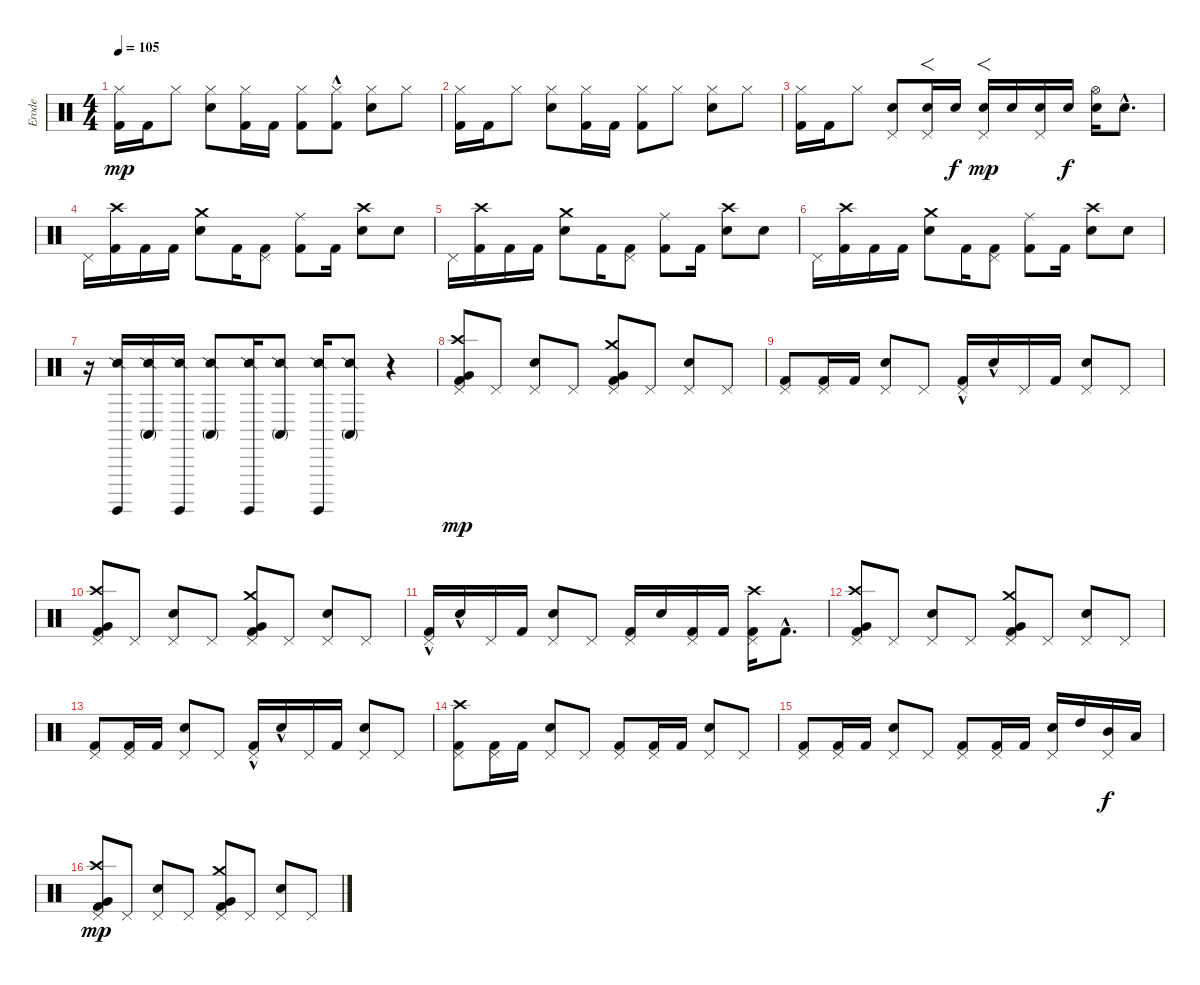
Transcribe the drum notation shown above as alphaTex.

\track ("Erode" "Erode") {instrument percussion}
\staff {score}
\articulation defaults
\ts (4 4)
\tempo 105
\clef neutral
\ks c
("Kick (hit) 2" "Hi-Hat (closed)").16{dy mp} "Kick (hit) 2".16 "Hi-Hat (closed)".8 ("Electric Snare (hit)" "Hi-Hat (closed)").8 ("Kick (hit) 2" "Hi-Hat (closed)").16 "Kick (hit) 2".16 ("Kick (hit) 2" "Hi-Hat (closed)").8 ("Kick (hit) 2"{hac} "Hi-Hat (closed)").8 ("Electric Snare (hit)" "Hi-Hat (closed)").8 "Hi-Hat (closed)".8 |
("Kick (hit) 2" "Hi-Hat (closed)").16 "Kick (hit) 2".16 "Hi-Hat (closed)".8 ("Electric Snare (hit)" "Hi-Hat (closed)").8 ("Kick (hit) 2" "Hi-Hat (closed)").16 "Kick (hit) 2".16 ("Kick (hit) 2" "Hi-Hat (closed)").8 "Hi-Hat (closed)".8 ("Electric Snare (hit)" "Hi-Hat (closed)").8 "Hi-Hat (closed)".8 |
("Kick (hit) 2" "Hi-Hat (closed)").16 "Kick (hit) 2".16 "Hi-Hat (closed)".8 ("Electric Snare (hit)" "Pedal Hi-Hat (hit)").8 ("Electric Snare (hit)" "Pedal Hi-Hat (hit)").16{f} "Electric Snare (hit)".16{dy f} ("Electric Snare (hit)" "Pedal Hi-Hat (hit)").16{f dy mp} "Electric Snare (hit)".16 ("Electric Snare (hit)" "Pedal Hi-Hat (hit)").16 "Electric Snare (hit)".16{dy f} ("Electric Snare (hit)" "Hi-Hat (open)").16 "Electric Snare (hit)"{hac}.8{d} |
"Pedal Hi-Hat (hit)".16 ("Kick (hit) 2" "Crash high (hit)").16 "Kick (hit) 2".16 "Kick (hit) 2".16 ("Electric Snare (hit)" "Crash medium (hit)").8 "Kick (hit) 2".16 ("Kick (hit) 2" "Pedal Hi-Hat (hit)").8 ("Kick (hit) 2" "Ride (middle)").8 "Kick (hit) 2".16 ("Electric Snare (hit)" "Crash high (hit)").8 "Electric Snare (hit)".8 |
"Pedal Hi-Hat (hit)".16 ("Kick (hit) 2" "Crash high (hit)").16 "Kick (hit) 2".16 "Kick (hit) 2".16 ("Electric Snare (hit)" "Crash medium (hit)").8 "Kick (hit) 2".16 ("Kick (hit) 2" "Pedal Hi-Hat (hit)").8 ("Kick (hit) 2" "Ride (middle)").8 "Kick (hit) 2".16 ("Electric Snare (hit)" "Crash high (hit)").8 "Electric Snare (hit)".8 |
"Pedal Hi-Hat (hit)".16 ("Kick (hit) 2" "Crash high (hit)").16 "Kick (hit) 2".16 "Kick (hit) 2".16 ("Electric Snare (hit)" "Crash medium (hit)").8 "Kick (hit) 2".16 ("Kick (hit) 2" "Pedal Hi-Hat (hit)").8 ("Kick (hit) 2" "Ride (middle)").8 "Kick (hit) 2".16 ("Electric Snare (hit)" "Crash high (hit)").8 "Electric Snare (hit)".8 |
r.16 ("Snare (side stick) 2" "Surdo (hit)").16{volume 9} ("Snare (side stick) 2" "Conga high (mute)").16 ("Snare (side stick) 2" "Surdo (hit)").16 ("Snare (side stick) 2" "Conga high (mute)").8 ("Snare (side stick) 2" "Surdo (hit)").16 ("Snare (side stick) 2" "Conga high (mute)").8 ("Snare (side stick) 2" "Surdo (hit)").16 ("Snare (side stick) 2" "Conga high (mute)").8 r.4{volume 16} |
("Kick (hit) 2" "Very Low Tom (hit)" "Pedal Hi-Hat (hit)" "Crash high (hit)").8{dy mp} "Pedal Hi-Hat (hit)".8 ("Snare (hit) 2" "Pedal Hi-Hat (hit)").8 "Pedal Hi-Hat (hit)".8 ("Kick (hit) 2" "Very Low Tom (hit)" "Pedal Hi-Hat (hit)" "Crash medium (hit)").8 "Pedal Hi-Hat (hit)".8 ("Snare (hit) 2" "Pedal Hi-Hat (hit)").8 "Pedal Hi-Hat (hit)".8 |
("Kick (hit) 2" "Pedal Hi-Hat (hit)").8 ("Kick (hit) 2" "Pedal Hi-Hat (hit)").16 "Kick (hit) 2".16 ("Snare (hit) 2" "Pedal Hi-Hat (hit)").8 "Pedal Hi-Hat (hit)".8 ("Kick (hit) 2"{hac} "Pedal Hi-Hat (hit)").16 "Snare (hit) 2"{hac}.16 "Pedal Hi-Hat (hit)".16 "Kick (hit) 2".16 ("Snare (hit) 2" "Pedal Hi-Hat (hit)").8 "Pedal Hi-Hat (hit)".8 |
("Kick (hit) 2" "Very Low Tom (hit)" "Pedal Hi-Hat (hit)" "Crash high (hit)").8 "Pedal Hi-Hat (hit)".8 ("Snare (hit) 2" "Pedal Hi-Hat (hit)").8 "Pedal Hi-Hat (hit)".8 ("Kick (hit) 2" "Very Low Tom (hit)" "Pedal Hi-Hat (hit)" "Crash medium (hit)").8 "Pedal Hi-Hat (hit)".8 ("Snare (hit) 2" "Pedal Hi-Hat (hit)").8 "Pedal Hi-Hat (hit)".8 |
("Kick (hit) 2"{hac} "Pedal Hi-Hat (hit)").16 "Snare (hit) 2"{hac}.16 "Pedal Hi-Hat (hit)".16 "Kick (hit) 2".16 ("Snare (hit) 2" "Pedal Hi-Hat (hit)").8 "Pedal Hi-Hat (hit)".8 ("Kick (hit) 2" "Pedal Hi-Hat (hit)").16 "Snare (hit) 2".16 ("Kick (hit) 2" "Pedal Hi-Hat (hit)").16 "Kick (hit) 2".16 ("Kick (hit) 2" "Pedal Hi-Hat (hit)" "Crash high (hit)").16 "Kick (hit) 2"{hac}.8{d} |
("Kick (hit) 2" "Very Low Tom (hit)" "Pedal Hi-Hat (hit)" "Crash high (hit)").8 "Pedal Hi-Hat (hit)".8 ("Snare (hit) 2" "Pedal Hi-Hat (hit)").8 "Pedal Hi-Hat (hit)".8 ("Kick (hit) 2" "Very Low Tom (hit)" "Pedal Hi-Hat (hit)" "Crash medium (hit)").8 "Pedal Hi-Hat (hit)".8 ("Snare (hit) 2" "Pedal Hi-Hat (hit)").8 "Pedal Hi-Hat (hit)".8 |
("Kick (hit) 2" "Pedal Hi-Hat (hit)").8 ("Kick (hit) 2" "Pedal Hi-Hat (hit)").16 "Kick (hit) 2".16 ("Snare (hit) 2" "Pedal Hi-Hat (hit)").8 "Pedal Hi-Hat (hit)".8 ("Kick (hit) 2"{hac} "Pedal Hi-Hat (hit)").16 "Snare (hit) 2"{hac}.16 "Pedal Hi-Hat (hit)".16 "Kick (hit) 2".16 ("Snare (hit) 2" "Pedal Hi-Hat (hit)").8 "Pedal Hi-Hat (hit)".8 |
("Kick (hit) 2" "Pedal Hi-Hat (hit)" "Crash high (hit)").8 ("Kick (hit) 2" "Pedal Hi-Hat (hit)").16 "Kick (hit) 2".16 ("Snare (hit) 2" "Pedal Hi-Hat (hit)").8 "Pedal Hi-Hat (hit)".8 ("Kick (hit) 2" "Pedal Hi-Hat (hit)").8 ("Kick (hit) 2" "Pedal Hi-Hat (hit)").16 "Kick (hit) 2".16 ("Snare (hit) 2" "Pedal Hi-Hat (hit)").8 "Pedal Hi-Hat (hit)".8 |
("Kick (hit) 2" "Pedal Hi-Hat (hit)").8 ("Kick (hit) 2" "Pedal Hi-Hat (hit)").16 "Kick (hit) 2".16 ("Snare (hit) 2" "Pedal Hi-Hat (hit)").8 "Pedal Hi-Hat (hit)".8 ("Kick (hit) 2" "Pedal Hi-Hat (hit)").8 ("Kick (hit) 2" "Pedal Hi-Hat (hit)").16 "Kick (hit) 2".16 ("Snare (hit) 2" "Pedal Hi-Hat (hit)").16 "High Tom (hit)".16 ("Mid Tom (hit)" "Pedal Hi-Hat (hit)").16{dy f} "Low Tom (hit)".16 |
("Kick (hit) 2" "Very Low Tom (hit)" "Pedal Hi-Hat (hit)" "Crash high (hit)").8{dy mp} "Pedal Hi-Hat (hit)".8 ("Snare (hit) 2" "Pedal Hi-Hat (hit)").8 "Pedal Hi-Hat (hit)".8 ("Kick (hit) 2" "Very Low Tom (hit)" "Pedal Hi-Hat (hit)" "Crash medium (hit)").8 "Pedal Hi-Hat (hit)".8 ("Snare (hit) 2" "Pedal Hi-Hat (hit)").8 "Pedal Hi-Hat (hit)".8
